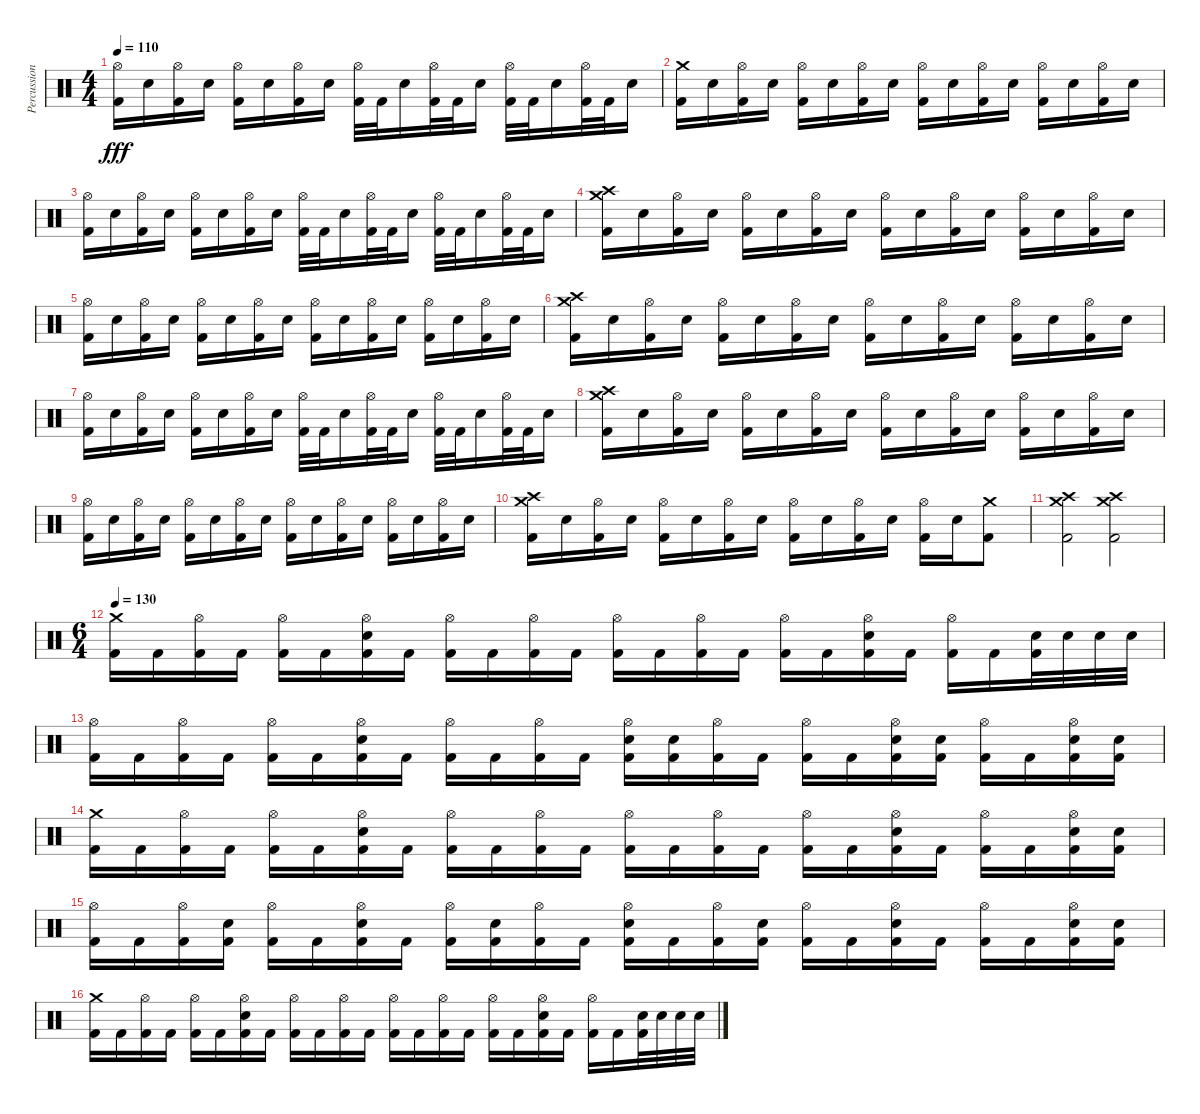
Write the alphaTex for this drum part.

\track ("Percussion" "Percussion") {instrument percussion}
\staff
\articulation defaults
\ts (4 4)
\tempo 110
\clef neutral
\ks c
("Hi-Hat (open)" "Kick (hit) 2").16{dy fff} "Snare (hit) 2".16 ("Hi-Hat (open)" "Kick (hit) 2").16 "Snare (hit) 2".16 ("Hi-Hat (open)" "Kick (hit) 2").16 "Snare (hit) 2".16 ("Hi-Hat (open)" "Kick (hit) 2").16 "Snare (hit) 2".16 ("Hi-Hat (open)" "Kick (hit) 2").32 "Kick (hit) 2".32 "Snare (hit) 2".16 ("Hi-Hat (open)" "Kick (hit) 2").32 "Kick (hit) 2".32 "Snare (hit) 2".16 ("Hi-Hat (open)" "Kick (hit) 2").32 "Kick (hit) 2".32 "Snare (hit) 2".16 ("Hi-Hat (open)" "Kick (hit) 2").32 "Kick (hit) 2".32 "Snare (hit) 2".16 |
("Crash medium (hit)" "Kick (hit) 2").16 "Snare (hit) 2".16 ("Hi-Hat (open)" "Kick (hit) 2").16 "Snare (hit) 2".16 ("Hi-Hat (open)" "Kick (hit) 2").16 "Snare (hit) 2".16 ("Hi-Hat (open)" "Kick (hit) 2").16 "Snare (hit) 2".16 ("Hi-Hat (open)" "Kick (hit) 2").16 "Snare (hit) 2".16 ("Hi-Hat (open)" "Kick (hit) 2").16 "Snare (hit) 2".16 ("Hi-Hat (open)" "Kick (hit) 2").16 "Snare (hit) 2".16 ("Hi-Hat (open)" "Kick (hit) 2").16 "Snare (hit) 2".16 |
("Hi-Hat (open)" "Kick (hit) 2").16 "Snare (hit) 2".16 ("Hi-Hat (open)" "Kick (hit) 2").16 "Snare (hit) 2".16 ("Hi-Hat (open)" "Kick (hit) 2").16 "Snare (hit) 2".16 ("Hi-Hat (open)" "Kick (hit) 2").16 "Snare (hit) 2".16 ("Hi-Hat (open)" "Kick (hit) 2").32 "Kick (hit) 2".32 "Snare (hit) 2".16 ("Hi-Hat (open)" "Kick (hit) 2").32 "Kick (hit) 2".32 "Snare (hit) 2".16 ("Hi-Hat (open)" "Kick (hit) 2").32 "Kick (hit) 2".32 "Snare (hit) 2".16 ("Hi-Hat (open)" "Kick (hit) 2").32 "Kick (hit) 2".32 "Snare (hit) 2".16 |
("Crash high (hit)" "Crash medium (hit)" "Kick (hit) 2").16 "Snare (hit) 2".16 ("Hi-Hat (open)" "Kick (hit) 2").16 "Snare (hit) 2".16 ("Hi-Hat (open)" "Kick (hit) 2").16 "Snare (hit) 2".16 ("Hi-Hat (open)" "Kick (hit) 2").16 "Snare (hit) 2".16 ("Hi-Hat (open)" "Kick (hit) 2").16 "Snare (hit) 2".16 ("Hi-Hat (open)" "Kick (hit) 2").16 "Snare (hit) 2".16 ("Hi-Hat (open)" "Kick (hit) 2").16 "Snare (hit) 2".16 ("Hi-Hat (open)" "Kick (hit) 2").16 "Snare (hit) 2".16 |
("Hi-Hat (open)" "Kick (hit) 2").16 "Snare (hit) 2".16 ("Hi-Hat (open)" "Kick (hit) 2").16 "Snare (hit) 2".16 ("Hi-Hat (open)" "Kick (hit) 2").16 "Snare (hit) 2".16 ("Hi-Hat (open)" "Kick (hit) 2").16 "Snare (hit) 2".16 ("Hi-Hat (open)" "Kick (hit) 2").16 "Snare (hit) 2".16 ("Hi-Hat (open)" "Kick (hit) 2").16 "Snare (hit) 2".16 ("Hi-Hat (open)" "Kick (hit) 2").16 "Snare (hit) 2".16 ("Hi-Hat (open)" "Kick (hit) 2").16 "Snare (hit) 2".16 |
("Crash medium (hit)" "Crash high (hit)" "Kick (hit) 2").16 "Snare (hit) 2".16 ("Hi-Hat (open)" "Kick (hit) 2").16 "Snare (hit) 2".16 ("Hi-Hat (open)" "Kick (hit) 2").16 "Snare (hit) 2".16 ("Hi-Hat (open)" "Kick (hit) 2").16 "Snare (hit) 2".16 ("Hi-Hat (open)" "Kick (hit) 2").16 "Snare (hit) 2".16 ("Hi-Hat (open)" "Kick (hit) 2").16 "Snare (hit) 2".16 ("Hi-Hat (open)" "Kick (hit) 2").16 "Snare (hit) 2".16 ("Hi-Hat (open)" "Kick (hit) 2").16 "Snare (hit) 2".16 |
("Hi-Hat (open)" "Kick (hit) 2").16 "Snare (hit) 2".16 ("Hi-Hat (open)" "Kick (hit) 2").16 "Snare (hit) 2".16 ("Hi-Hat (open)" "Kick (hit) 2").16 "Snare (hit) 2".16 ("Hi-Hat (open)" "Kick (hit) 2").16 "Snare (hit) 2".16 ("Hi-Hat (open)" "Kick (hit) 2").32 "Kick (hit) 2".32 "Snare (hit) 2".16 ("Hi-Hat (open)" "Kick (hit) 2").32 "Kick (hit) 2".32 "Snare (hit) 2".16 ("Hi-Hat (open)" "Kick (hit) 2").32 "Kick (hit) 2".32 "Snare (hit) 2".16 ("Hi-Hat (open)" "Kick (hit) 2").32 "Kick (hit) 2".32 "Snare (hit) 2".16 |
("Crash high (hit)" "Crash medium (hit)" "Kick (hit) 2").16 "Snare (hit) 2".16 ("Hi-Hat (open)" "Kick (hit) 2").16 "Snare (hit) 2".16 ("Hi-Hat (open)" "Kick (hit) 2").16 "Snare (hit) 2".16 ("Hi-Hat (open)" "Kick (hit) 2").16 "Snare (hit) 2".16 ("Hi-Hat (open)" "Kick (hit) 2").16 "Snare (hit) 2".16 ("Hi-Hat (open)" "Kick (hit) 2").16 "Snare (hit) 2".16 ("Hi-Hat (open)" "Kick (hit) 2").16 "Snare (hit) 2".16 ("Hi-Hat (open)" "Kick (hit) 2").16 "Snare (hit) 2".16 |
("Hi-Hat (open)" "Kick (hit) 2").16 "Snare (hit) 2".16 ("Hi-Hat (open)" "Kick (hit) 2").16 "Snare (hit) 2".16 ("Hi-Hat (open)" "Kick (hit) 2").16 "Snare (hit) 2".16 ("Hi-Hat (open)" "Kick (hit) 2").16 "Snare (hit) 2".16 ("Hi-Hat (open)" "Kick (hit) 2").16 "Snare (hit) 2".16 ("Hi-Hat (open)" "Kick (hit) 2").16 "Snare (hit) 2".16 ("Hi-Hat (open)" "Kick (hit) 2").16 "Snare (hit) 2".16 ("Hi-Hat (open)" "Kick (hit) 2").16 "Snare (hit) 2".16 |
("Crash medium (hit)" "Crash high (hit)" "Kick (hit) 2").16 "Snare (hit) 2".16 ("Hi-Hat (open)" "Kick (hit) 2").16 "Snare (hit) 2".16 ("Hi-Hat (open)" "Kick (hit) 2").16 "Snare (hit) 2".16 ("Hi-Hat (open)" "Kick (hit) 2").16 "Snare (hit) 2".16 ("Hi-Hat (open)" "Kick (hit) 2").16 "Snare (hit) 2".16 ("Hi-Hat (open)" "Kick (hit) 2").16 "Snare (hit) 2".16 ("Hi-Hat (open)" "Kick (hit) 2").16 "Snare (hit) 2".16 ("Crash medium (hit)" "Kick (hit) 2").8 |
("Crash high (hit)" "Crash medium (hit)" "Kick (hit) 2").2 ("Crash medium (hit)" "Crash high (hit)" "Kick (hit) 2").2 |
\ts (6 4)
\tempo 130
("Crash medium (hit)" "Kick (hit) 2").16 "Kick (hit) 2".16 ("Hi-Hat (open)" "Kick (hit) 2").16 "Kick (hit) 2".16 ("Hi-Hat (open)" "Kick (hit) 2").16 "Kick (hit) 2".16 ("Hi-Hat (open)" "Snare (hit) 2" "Kick (hit) 2").16 "Kick (hit) 2".16 ("Hi-Hat (open)" "Kick (hit) 2").16 "Kick (hit) 2".16 ("Hi-Hat (open)" "Kick (hit) 2").16 "Kick (hit) 2".16 ("Hi-Hat (open)" "Kick (hit) 2").16 "Kick (hit) 2".16 ("Hi-Hat (open)" "Kick (hit) 2").16 "Kick (hit) 2".16 ("Hi-Hat (open)" "Kick (hit) 2").16 "Kick (hit) 2".16 ("Hi-Hat (open)" "Snare (hit) 2" "Kick (hit) 2").16 "Kick (hit) 2".16 ("Hi-Hat (open)" "Kick (hit) 2").16 "Kick (hit) 2".16 ("Snare (hit) 2" "Kick (hit) 2").32 "Snare (hit) 2".32 "Snare (hit) 2".32 "Snare (hit) 2".32 |
("Hi-Hat (open)" "Kick (hit) 2").16 "Kick (hit) 2".16 ("Hi-Hat (open)" "Kick (hit) 2").16 "Kick (hit) 2".16 ("Hi-Hat (open)" "Kick (hit) 2").16 "Kick (hit) 2".16 ("Hi-Hat (open)" "Snare (hit) 2" "Kick (hit) 2").16 "Kick (hit) 2".16 ("Hi-Hat (open)" "Kick (hit) 2").16 "Kick (hit) 2".16 ("Hi-Hat (open)" "Kick (hit) 2").16 "Kick (hit) 2".16 ("Hi-Hat (open)" "Snare (hit) 2" "Kick (hit) 2").16 ("Snare (hit) 2" "Kick (hit) 2").16 ("Hi-Hat (open)" "Kick (hit) 2").16 "Kick (hit) 2".16 ("Hi-Hat (open)" "Kick (hit) 2").16 "Kick (hit) 2".16 ("Hi-Hat (open)" "Snare (hit) 2" "Kick (hit) 2").16 ("Snare (hit) 2" "Kick (hit) 2").16 ("Hi-Hat (open)" "Kick (hit) 2").16 "Kick (hit) 2".16 ("Hi-Hat (open)" "Snare (hit) 2" "Kick (hit) 2").16 ("Snare (hit) 2" "Kick (hit) 2").16 |
("Crash medium (hit)" "Kick (hit) 2").16 "Kick (hit) 2".16 ("Hi-Hat (open)" "Kick (hit) 2").16 "Kick (hit) 2".16 ("Hi-Hat (open)" "Kick (hit) 2").16 "Kick (hit) 2".16 ("Hi-Hat (open)" "Snare (hit) 2" "Kick (hit) 2").16 "Kick (hit) 2".16 ("Hi-Hat (open)" "Kick (hit) 2").16 "Kick (hit) 2".16 ("Hi-Hat (open)" "Kick (hit) 2").16 "Kick (hit) 2".16 ("Hi-Hat (open)" "Kick (hit) 2").16 "Kick (hit) 2".16 ("Hi-Hat (open)" "Kick (hit) 2").16 "Kick (hit) 2".16 ("Hi-Hat (open)" "Kick (hit) 2").16 "Kick (hit) 2".16 ("Hi-Hat (open)" "Snare (hit) 2" "Kick (hit) 2").16 "Kick (hit) 2".16 ("Hi-Hat (open)" "Kick (hit) 2").16 "Kick (hit) 2".16 ("Hi-Hat (open)" "Snare (hit) 2" "Kick (hit) 2").16 ("Snare (hit) 2" "Kick (hit) 2").16 |
("Hi-Hat (open)" "Kick (hit) 2").16 "Kick (hit) 2".16 ("Hi-Hat (open)" "Kick (hit) 2").16 ("Snare (hit) 2" "Kick (hit) 2").16 ("Hi-Hat (open)" "Kick (hit) 2").16 "Kick (hit) 2".16 ("Hi-Hat (open)" "Snare (hit) 2" "Kick (hit) 2").16 "Kick (hit) 2".16 ("Hi-Hat (open)" "Kick (hit) 2").16 ("Snare (hit) 2" "Kick (hit) 2").16 ("Hi-Hat (open)" "Kick (hit) 2").16 "Kick (hit) 2".16 ("Hi-Hat (open)" "Snare (hit) 2" "Kick (hit) 2").16 "Kick (hit) 2".16 ("Hi-Hat (open)" "Kick (hit) 2").16 ("Snare (hit) 2" "Kick (hit) 2").16 ("Hi-Hat (open)" "Kick (hit) 2").16 "Kick (hit) 2".16 ("Hi-Hat (open)" "Snare (hit) 2" "Kick (hit) 2").16 "Kick (hit) 2".16 ("Hi-Hat (open)" "Kick (hit) 2").16 "Kick (hit) 2".16 ("Hi-Hat (open)" "Snare (hit) 2" "Kick (hit) 2").16 ("Snare (hit) 2" "Kick (hit) 2").16 |
("Crash medium (hit)" "Kick (hit) 2").16 "Kick (hit) 2".16 ("Hi-Hat (open)" "Kick (hit) 2").16 "Kick (hit) 2".16 ("Hi-Hat (open)" "Kick (hit) 2").16 "Kick (hit) 2".16 ("Hi-Hat (open)" "Snare (hit) 2" "Kick (hit) 2").16 "Kick (hit) 2".16 ("Hi-Hat (open)" "Kick (hit) 2").16 "Kick (hit) 2".16 ("Hi-Hat (open)" "Kick (hit) 2").16 "Kick (hit) 2".16 ("Hi-Hat (open)" "Kick (hit) 2").16 "Kick (hit) 2".16 ("Hi-Hat (open)" "Kick (hit) 2").16 "Kick (hit) 2".16 ("Hi-Hat (open)" "Kick (hit) 2").16 "Kick (hit) 2".16 ("Hi-Hat (open)" "Snare (hit) 2" "Kick (hit) 2").16 "Kick (hit) 2".16 ("Hi-Hat (open)" "Kick (hit) 2").16 "Kick (hit) 2".16 ("Snare (hit) 2" "Kick (hit) 2").32 "Snare (hit) 2".32 "Snare (hit) 2".32 "Snare (hit) 2".32
